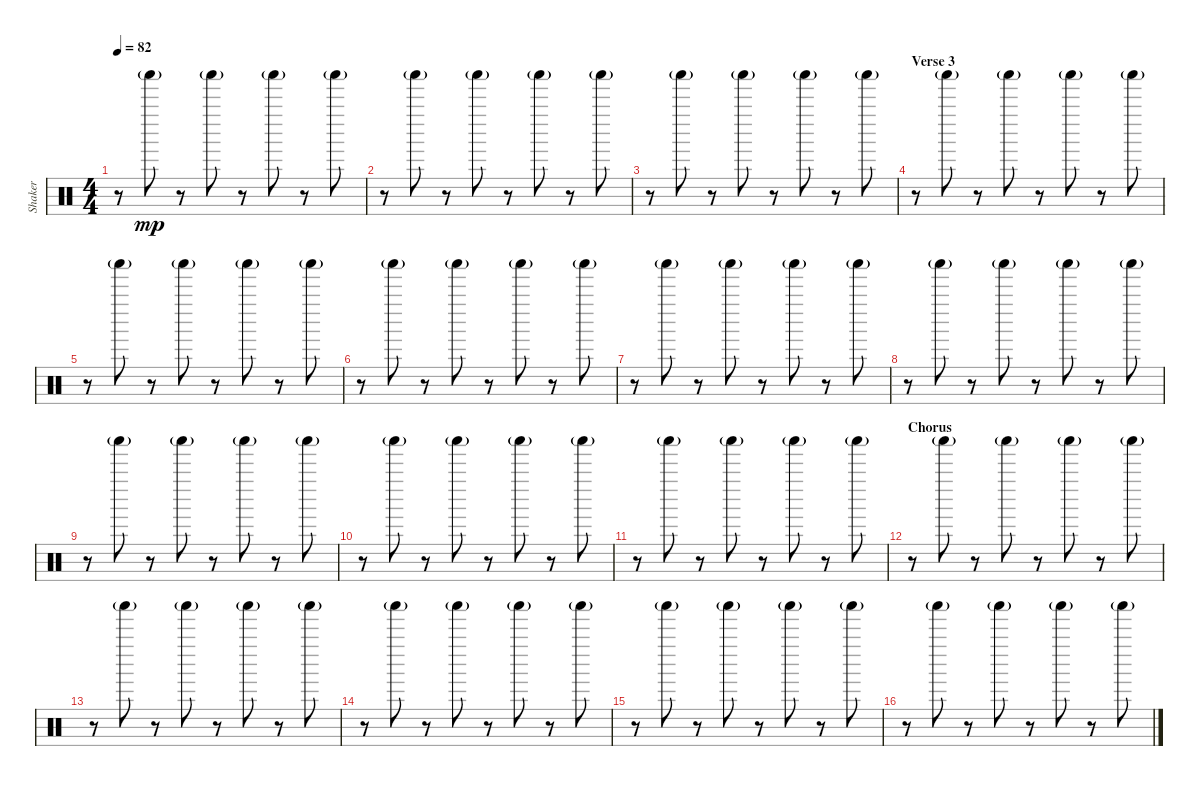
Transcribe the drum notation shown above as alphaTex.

\track ("Shaker" "Shaker") {instrument percussion}
\staff {score}
\articulation defaults
\ts (4 4)
\tempo 82
\clef neutral
\ks c
r.8{dy mp} "Shaker (hit)"{g}.8 r.8 "Shaker (hit)"{g}.8 r.8 "Shaker (hit)"{g}.8 r.8 "Shaker (hit)"{g}.8 |
r.8 "Shaker (hit)"{g}.8 r.8 "Shaker (hit)"{g}.8 r.8 "Shaker (hit)"{g}.8 r.8 "Shaker (hit)"{g}.8 |
r.8 "Shaker (hit)"{g}.8 r.8 "Shaker (hit)"{g}.8 r.8 "Shaker (hit)"{g}.8 r.8 "Shaker (hit)"{g}.8 |
\section ("" "Verse 3")
r.8 "Shaker (hit)"{g}.8 r.8 "Shaker (hit)"{g}.8 r.8 "Shaker (hit)"{g}.8 r.8 "Shaker (hit)"{g}.8 |
r.8 "Shaker (hit)"{g}.8 r.8 "Shaker (hit)"{g}.8 r.8 "Shaker (hit)"{g}.8 r.8 "Shaker (hit)"{g}.8 |
r.8 "Shaker (hit)"{g}.8 r.8 "Shaker (hit)"{g}.8 r.8 "Shaker (hit)"{g}.8 r.8 "Shaker (hit)"{g}.8 |
r.8 "Shaker (hit)"{g}.8 r.8 "Shaker (hit)"{g}.8 r.8 "Shaker (hit)"{g}.8 r.8 "Shaker (hit)"{g}.8 |
r.8 "Shaker (hit)"{g}.8 r.8 "Shaker (hit)"{g}.8 r.8 "Shaker (hit)"{g}.8 r.8 "Shaker (hit)"{g}.8 |
r.8 "Shaker (hit)"{g}.8 r.8 "Shaker (hit)"{g}.8 r.8 "Shaker (hit)"{g}.8 r.8 "Shaker (hit)"{g}.8 |
r.8 "Shaker (hit)"{g}.8 r.8 "Shaker (hit)"{g}.8 r.8 "Shaker (hit)"{g}.8 r.8 "Shaker (hit)"{g}.8 |
r.8 "Shaker (hit)"{g}.8 r.8 "Shaker (hit)"{g}.8 r.8 "Shaker (hit)"{g}.8 r.8 "Shaker (hit)"{g}.8 |
\section ("" "Chorus")
r.8 "Shaker (hit)"{g}.8 r.8 "Shaker (hit)"{g}.8 r.8 "Shaker (hit)"{g}.8 r.8 "Shaker (hit)"{g}.8 |
r.8 "Shaker (hit)"{g}.8 r.8 "Shaker (hit)"{g}.8 r.8 "Shaker (hit)"{g}.8 r.8 "Shaker (hit)"{g}.8 |
r.8 "Shaker (hit)"{g}.8 r.8 "Shaker (hit)"{g}.8 r.8 "Shaker (hit)"{g}.8 r.8 "Shaker (hit)"{g}.8 |
r.8 "Shaker (hit)"{g}.8 r.8 "Shaker (hit)"{g}.8 r.8 "Shaker (hit)"{g}.8 r.8 "Shaker (hit)"{g}.8 |
r.8 "Shaker (hit)"{g}.8 r.8 "Shaker (hit)"{g}.8 r.8 "Shaker (hit)"{g}.8 r.8 "Shaker (hit)"{g}.8
